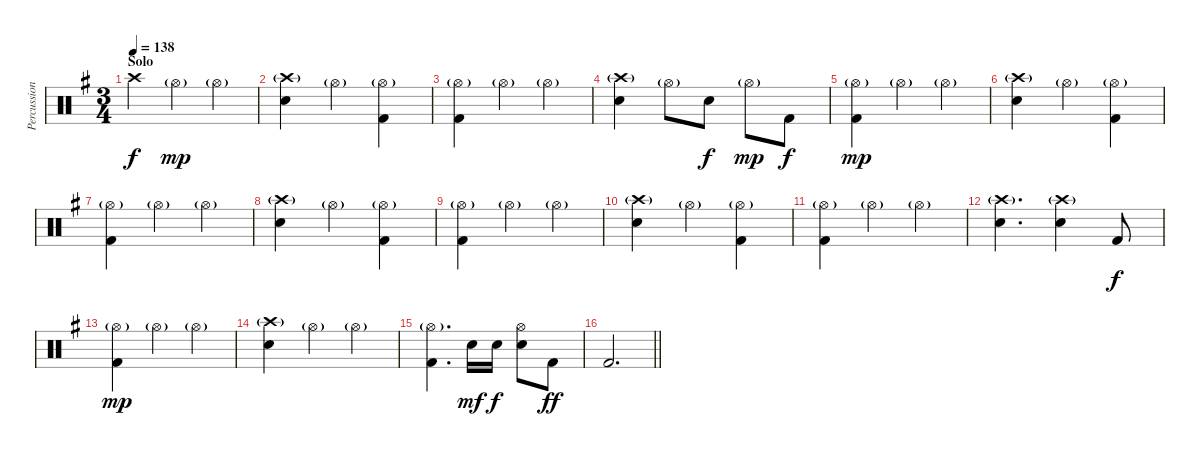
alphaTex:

\track ("Percussion (Thomen Stauch)" "Percussion") {instrument percussion}
\staff {score}
\articulation defaults
\ts (3 4)
\section ("" "Solo")
\tempo 138
\clef neutral
\ks eminor "Crash high (hit)".4{dy f} "Hi-Hat (open)"{g}.4{dy mp} "Hi-Hat (open)"{g}.4
|
("Crash high (hit)"{g} "Snare (hit) 2").4 "Hi-Hat (open)"{g}.4 ("Hi-Hat (open)"{g} "Kick (hit) 2").4 |
("Hi-Hat (open)"{g} "Kick (hit) 2").4 "Hi-Hat (open)"{g}.4 "Hi-Hat (open)"{g}.4 |
("Crash high (hit)"{g} "Snare (hit) 2").4 "Hi-Hat (open)"{g}.8 "Snare (hit) 2".8{dy f} "Hi-Hat (open)"{g}.8{dy mp} "Kick (hit) 2".8{dy f} |
("Hi-Hat (open)"{g} "Kick (hit) 2").4{dy mp} "Hi-Hat (open)"{g}.4 "Hi-Hat (open)"{g}.4 |
("Crash high (hit)"{g} "Snare (hit) 2").4 "Hi-Hat (open)"{g}.4 ("Hi-Hat (open)"{g} "Kick (hit) 2").4 |
("Hi-Hat (open)"{g} "Kick (hit) 2").4 "Hi-Hat (open)"{g}.4 "Hi-Hat (open)"{g}.4 |
("Crash high (hit)"{g} "Snare (hit) 2").4 "Hi-Hat (open)"{g}.4 ("Hi-Hat (open)"{g} "Kick (hit) 2").4 |
("Hi-Hat (open)"{g} "Kick (hit) 2").4 "Hi-Hat (open)"{g}.4 "Hi-Hat (open)"{g}.4 |
("Crash high (hit)"{g} "Snare (hit) 2").4 "Hi-Hat (open)"{g}.4 ("Hi-Hat (open)"{g} "Kick (hit) 2").4 |
("Hi-Hat (open)"{g} "Kick (hit) 2").4 "Hi-Hat (open)"{g}.4 "Hi-Hat (open)"{g}.4 |
("Crash high (hit)"{g} "Snare (hit) 2").4{d} ("Crash high (hit)"{g} "Snare (hit) 2").4 "Kick (hit) 2".8{dy f} |
("Hi-Hat (open)"{g} "Kick (hit) 2").4{dy mp} "Hi-Hat (open)"{g}.4 "Hi-Hat (open)"{g}.4 |
("Crash high (hit)"{g} "Snare (hit) 2").4 "Hi-Hat (open)"{g}.4 "Hi-Hat (open)"{g}.4 |
("Hi-Hat (open)"{g} "Kick (hit) 2").4{d} "Snare (hit) 2".16{dy mf} "Snare (hit) 2".16{dy f} ("Hi-Hat (open)" "Snare (hit) 2").8 "Kick (hit) 2".8{dy ff} |
\barLineRight lightlight "Kick (hit) 2".2{d}
